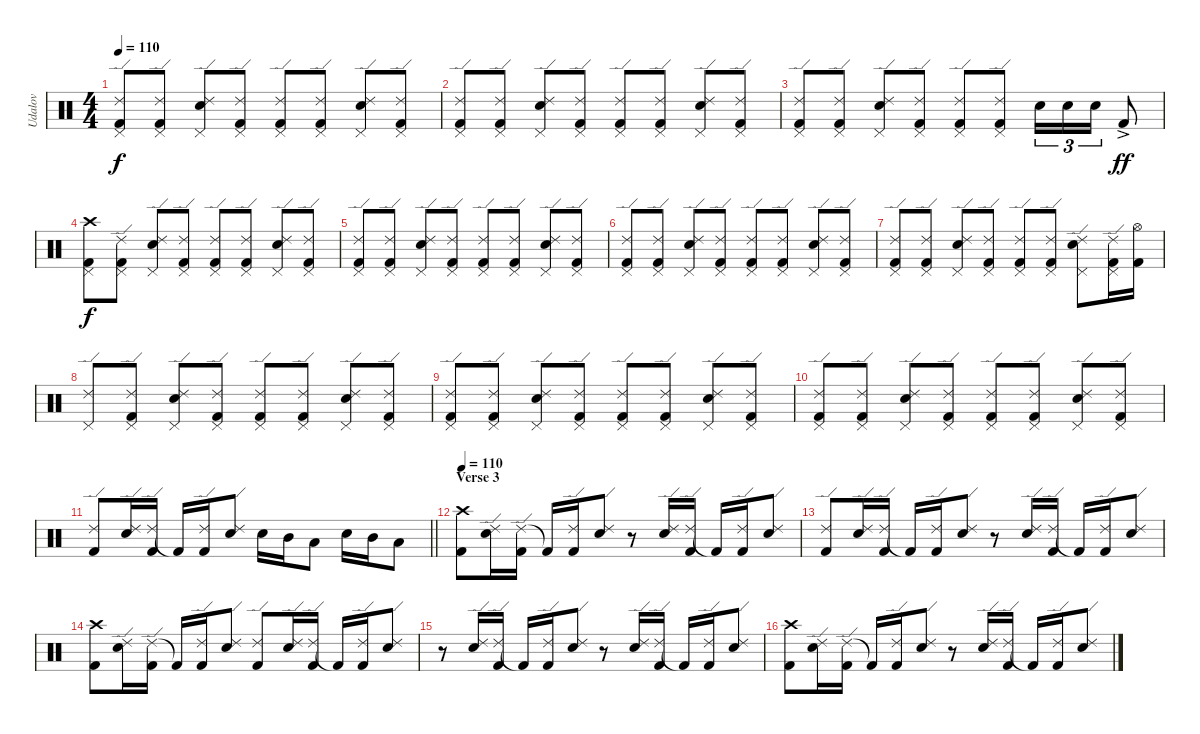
\track ("Udalov" "Udalov") {instrument percussion}
\staff {score}
\articulation defaults
\ts (4 4)
\tempo 110
\clef neutral
\ks c
("Ride (edge) 2" "Kick (hit) 2" "Pedal Hi-Hat (hit)").8{dy f} ("Ride (edge) 2" "Kick (hit) 2" "Pedal Hi-Hat (hit)").8 ("Ride (edge) 2" "Snare (hit) 2" "Pedal Hi-Hat (hit)").8 ("Ride (edge) 2" "Kick (hit) 2" "Pedal Hi-Hat (hit)").8 ("Ride (edge) 2" "Kick (hit) 2" "Pedal Hi-Hat (hit)").8 ("Ride (edge) 2" "Kick (hit) 2" "Pedal Hi-Hat (hit)").8 ("Ride (edge) 2" "Snare (hit) 2" "Pedal Hi-Hat (hit)").8 ("Ride (edge) 2" "Kick (hit) 2" "Pedal Hi-Hat (hit)").8 |
("Ride (edge) 2" "Kick (hit) 2" "Pedal Hi-Hat (hit)").8 ("Ride (edge) 2" "Kick (hit) 2" "Pedal Hi-Hat (hit)").8 ("Ride (edge) 2" "Snare (hit) 2" "Pedal Hi-Hat (hit)").8 ("Ride (edge) 2" "Kick (hit) 2" "Pedal Hi-Hat (hit)").8 ("Ride (edge) 2" "Kick (hit) 2" "Pedal Hi-Hat (hit)").8 ("Ride (edge) 2" "Kick (hit) 2" "Pedal Hi-Hat (hit)").8 ("Ride (edge) 2" "Snare (hit) 2" "Pedal Hi-Hat (hit)").8 ("Ride (edge) 2" "Kick (hit) 2" "Pedal Hi-Hat (hit)").8 |
("Ride (edge) 2" "Kick (hit) 2" "Pedal Hi-Hat (hit)").8 ("Ride (edge) 2" "Kick (hit) 2" "Pedal Hi-Hat (hit)").8 ("Ride (edge) 2" "Snare (hit) 2" "Pedal Hi-Hat (hit)").8 ("Ride (edge) 2" "Kick (hit) 2" "Pedal Hi-Hat (hit)").8 ("Ride (edge) 2" "Kick (hit) 2" "Pedal Hi-Hat (hit)").8 ("Ride (edge) 2" "Kick (hit) 2" "Pedal Hi-Hat (hit)").8 "Snare (hit) 2".16{tu (3 2)} "Snare (hit) 2".16{tu (3 2)} "Snare (hit) 2".16{tu (3 2)} "Kick (hit) 2"{ac}.8{dy ff} |
("Crash high (hit)" "Kick (hit) 2" "Pedal Hi-Hat (hit)").8{dy f} ("Ride (edge) 2" "Kick (hit) 2" "Pedal Hi-Hat (hit)").8 ("Ride (edge) 2" "Snare (hit) 2" "Pedal Hi-Hat (hit)").8 ("Ride (edge) 2" "Kick (hit) 2" "Pedal Hi-Hat (hit)").8 ("Ride (edge) 2" "Kick (hit) 2" "Pedal Hi-Hat (hit)").8 ("Ride (edge) 2" "Kick (hit) 2" "Pedal Hi-Hat (hit)").8 ("Ride (edge) 2" "Snare (hit) 2" "Pedal Hi-Hat (hit)").8 ("Ride (edge) 2" "Kick (hit) 2" "Pedal Hi-Hat (hit)").8 |
("Ride (edge) 2" "Kick (hit) 2" "Pedal Hi-Hat (hit)").8 ("Ride (edge) 2" "Kick (hit) 2" "Pedal Hi-Hat (hit)").8 ("Ride (edge) 2" "Snare (hit) 2" "Pedal Hi-Hat (hit)").8 ("Ride (edge) 2" "Kick (hit) 2" "Pedal Hi-Hat (hit)").8 ("Ride (edge) 2" "Kick (hit) 2" "Pedal Hi-Hat (hit)").8 ("Ride (edge) 2" "Kick (hit) 2" "Pedal Hi-Hat (hit)").8 ("Ride (edge) 2" "Snare (hit) 2" "Pedal Hi-Hat (hit)").8 ("Ride (edge) 2" "Kick (hit) 2" "Pedal Hi-Hat (hit)").8 |
("Ride (edge) 2" "Kick (hit) 2" "Pedal Hi-Hat (hit)").8 ("Ride (edge) 2" "Kick (hit) 2" "Pedal Hi-Hat (hit)").8 ("Ride (edge) 2" "Snare (hit) 2" "Pedal Hi-Hat (hit)").8 ("Ride (edge) 2" "Kick (hit) 2" "Pedal Hi-Hat (hit)").8 ("Ride (edge) 2" "Kick (hit) 2" "Pedal Hi-Hat (hit)").8 ("Ride (edge) 2" "Kick (hit) 2" "Pedal Hi-Hat (hit)").8 ("Ride (edge) 2" "Snare (hit) 2" "Pedal Hi-Hat (hit)").8 ("Ride (edge) 2" "Kick (hit) 2" "Pedal Hi-Hat (hit)").8 |
("Ride (edge) 2" "Kick (hit) 2" "Pedal Hi-Hat (hit)").8 ("Ride (edge) 2" "Kick (hit) 2" "Pedal Hi-Hat (hit)").8 ("Ride (edge) 2" "Snare (hit) 2" "Pedal Hi-Hat (hit)").8 ("Ride (edge) 2" "Kick (hit) 2" "Pedal Hi-Hat (hit)").8 ("Ride (edge) 2" "Kick (hit) 2" "Pedal Hi-Hat (hit)").8 ("Ride (edge) 2" "Kick (hit) 2" "Pedal Hi-Hat (hit)").8 ("Ride (edge) 2" "Snare (hit) 2" "Pedal Hi-Hat (hit)").8 ("Ride (edge) 2" "Kick (hit) 2" "Pedal Hi-Hat (hit)").16 ("Hi-Hat (open)" "Kick (hit) 2").16 |
("Ride (edge) 2" "Pedal Hi-Hat (hit)").8 ("Ride (edge) 2" "Kick (hit) 2" "Pedal Hi-Hat (hit)").8 ("Ride (edge) 2" "Snare (hit) 2" "Pedal Hi-Hat (hit)").8 ("Ride (edge) 2" "Kick (hit) 2" "Pedal Hi-Hat (hit)").8 ("Ride (edge) 2" "Kick (hit) 2" "Pedal Hi-Hat (hit)").8 ("Ride (edge) 2" "Kick (hit) 2" "Pedal Hi-Hat (hit)").8 ("Ride (edge) 2" "Snare (hit) 2" "Pedal Hi-Hat (hit)").8 ("Ride (edge) 2" "Kick (hit) 2" "Pedal Hi-Hat (hit)").8 |
("Ride (edge) 2" "Kick (hit) 2" "Pedal Hi-Hat (hit)").8 ("Ride (edge) 2" "Kick (hit) 2" "Pedal Hi-Hat (hit)").8 ("Ride (edge) 2" "Snare (hit) 2" "Pedal Hi-Hat (hit)").8 ("Ride (edge) 2" "Kick (hit) 2" "Pedal Hi-Hat (hit)").8 ("Ride (edge) 2" "Kick (hit) 2" "Pedal Hi-Hat (hit)").8 ("Ride (edge) 2" "Kick (hit) 2" "Pedal Hi-Hat (hit)").8 ("Ride (edge) 2" "Snare (hit) 2" "Pedal Hi-Hat (hit)").8 ("Ride (edge) 2" "Kick (hit) 2" "Pedal Hi-Hat (hit)").8 |
("Ride (edge) 2" "Kick (hit) 2" "Pedal Hi-Hat (hit)").8 ("Ride (edge) 2" "Kick (hit) 2" "Pedal Hi-Hat (hit)").8 ("Ride (edge) 2" "Snare (hit) 2" "Pedal Hi-Hat (hit)").8 ("Ride (edge) 2" "Kick (hit) 2" "Pedal Hi-Hat (hit)").8 ("Ride (edge) 2" "Kick (hit) 2" "Pedal Hi-Hat (hit)").8 ("Ride (edge) 2" "Kick (hit) 2" "Pedal Hi-Hat (hit)").8 ("Ride (edge) 2" "Snare (hit) 2" "Pedal Hi-Hat (hit)").8 ("Ride (edge) 2" "Kick (hit) 2" "Pedal Hi-Hat (hit)").8 |
\barLineRight lightlight
("Ride (edge) 2" "Kick (hit) 2").8 ("Ride (edge) 2" "Snare (hit) 2").16 ("Ride (edge) 2" "Kick (hit) 2").16 "Kick (hit) 2"{t}.16 ("Ride (edge) 2" "Kick (hit) 2").16 ("Ride (edge) 2" "Snare (hit) 2").8 "Snare (hit) 2".16 "Mid Tom (hit)".16 "Low Tom (hit)".8 "Snare (hit) 2".16 "Mid Tom (hit)".16 "Low Tom (hit)".8 |
\section ("" "Verse 3")
\tempo 110
("Crash high (hit)" "Kick (hit) 2").8 ("Ride (edge) 2" "Snare (hit) 2").16 ("Ride (edge) 2" "Kick (hit) 2").16 "Kick (hit) 2"{t}.16 ("Ride (edge) 2" "Kick (hit) 2").16 ("Ride (edge) 2" "Snare (hit) 2").8 r.8 ("Ride (edge) 2" "Snare (hit) 2").16 ("Ride (edge) 2" "Kick (hit) 2").16 "Kick (hit) 2"{t}.16 ("Ride (edge) 2" "Kick (hit) 2").16 ("Ride (edge) 2" "Snare (hit) 2").8 |
("Ride (edge) 2" "Kick (hit) 2").8 ("Ride (edge) 2" "Snare (hit) 2").16 ("Ride (edge) 2" "Kick (hit) 2").16 "Kick (hit) 2"{t}.16 ("Ride (edge) 2" "Kick (hit) 2").16 ("Ride (edge) 2" "Snare (hit) 2").8 r.8 ("Ride (edge) 2" "Snare (hit) 2").16 ("Ride (edge) 2" "Kick (hit) 2").16 "Kick (hit) 2"{t}.16 ("Ride (edge) 2" "Kick (hit) 2").16 ("Ride (edge) 2" "Snare (hit) 2").8 |
("Crash high (hit)" "Kick (hit) 2").8 ("Ride (edge) 2" "Snare (hit) 2").16 ("Ride (edge) 2" "Kick (hit) 2").16 "Kick (hit) 2"{t}.16 ("Ride (edge) 2" "Kick (hit) 2").16 ("Ride (edge) 2" "Snare (hit) 2").8 ("Ride (edge) 2" "Kick (hit) 2").8 ("Ride (edge) 2" "Snare (hit) 2").16 ("Ride (edge) 2" "Kick (hit) 2").16 "Kick (hit) 2"{t}.16 ("Ride (edge) 2" "Kick (hit) 2").16 ("Ride (edge) 2" "Snare (hit) 2").8 |
r.8 ("Ride (edge) 2" "Snare (hit) 2").16 ("Ride (edge) 2" "Kick (hit) 2").16 "Kick (hit) 2"{t}.16 ("Ride (edge) 2" "Kick (hit) 2").16 ("Ride (edge) 2" "Snare (hit) 2").8 r.8 ("Ride (edge) 2" "Snare (hit) 2").16 ("Ride (edge) 2" "Kick (hit) 2").16 "Kick (hit) 2"{t}.16 ("Ride (edge) 2" "Kick (hit) 2").16 ("Ride (edge) 2" "Snare (hit) 2").8 |
("Crash high (hit)" "Kick (hit) 2").8 ("Ride (edge) 2" "Snare (hit) 2").16 ("Ride (edge) 2" "Kick (hit) 2").16 "Kick (hit) 2"{t}.16 ("Ride (edge) 2" "Kick (hit) 2").16 ("Ride (edge) 2" "Snare (hit) 2").8 r.8 ("Ride (edge) 2" "Snare (hit) 2").16 ("Ride (edge) 2" "Kick (hit) 2").16 "Kick (hit) 2"{t}.16 ("Ride (edge) 2" "Kick (hit) 2").16 ("Ride (edge) 2" "Snare (hit) 2").8
